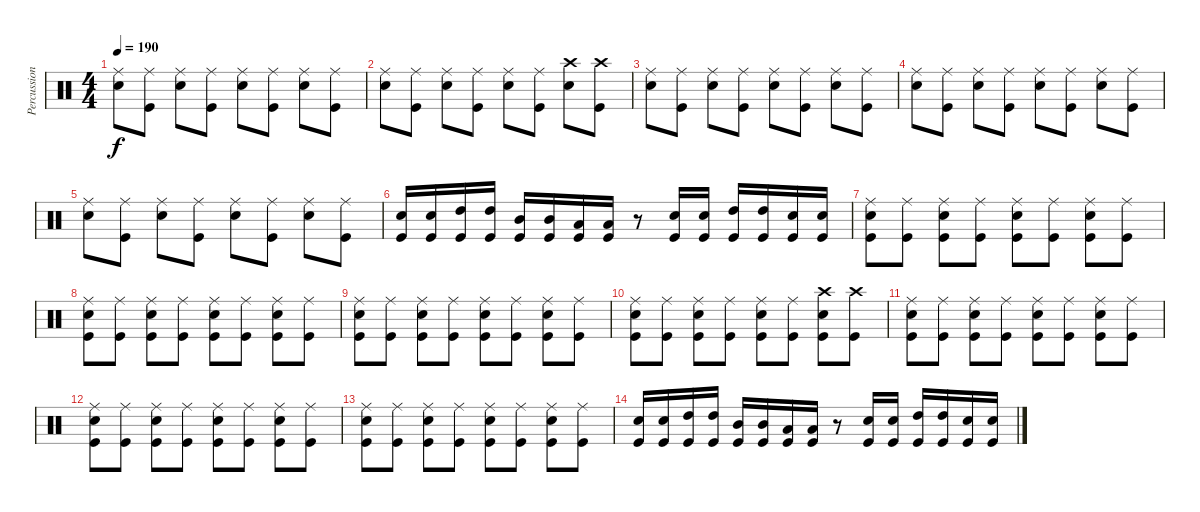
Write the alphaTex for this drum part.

\track ("Percussioni" "Percussion") {instrument percussion}
\staff {score}
\articulation defaults
\ts (4 4)
\tempo 190
\clef neutral
\ks c
("Ride (middle)" "Electric Snare (hit)").8{dy f} ("Ride (middle)" "Kick (hit)").8 ("Ride (middle)" "Electric Snare (hit)").8 ("Ride (middle)" "Kick (hit)").8 ("Ride (middle)" "Electric Snare (hit)").8 ("Ride (middle)" "Kick (hit)").8 ("Ride (middle)" "Electric Snare (hit)").8 ("Ride (middle)" "Kick (hit)").8 |
("Ride (middle)" "Electric Snare (hit)").8 ("Ride (middle)" "Kick (hit)").8 ("Ride (middle)" "Electric Snare (hit)").8 ("Ride (middle)" "Kick (hit)").8 ("Ride (middle)" "Electric Snare (hit)").8 ("Ride (middle)" "Kick (hit)").8 ("Crash high (hit)" "Electric Snare (hit)").8 ("Crash high (hit)" "Kick (hit)").8 |
("Ride (middle)" "Electric Snare (hit)").8 ("Ride (middle)" "Kick (hit)").8 ("Ride (middle)" "Electric Snare (hit)").8 ("Ride (middle)" "Kick (hit)").8 ("Ride (middle)" "Electric Snare (hit)").8 ("Ride (middle)" "Kick (hit)").8 ("Ride (middle)" "Electric Snare (hit)").8 ("Ride (middle)" "Kick (hit)").8 |
("Ride (middle)" "Electric Snare (hit)").8 ("Ride (middle)" "Kick (hit)").8 ("Ride (middle)" "Electric Snare (hit)").8 ("Ride (middle)" "Kick (hit)").8 ("Ride (middle)" "Electric Snare (hit)").8 ("Ride (middle)" "Kick (hit)").8 ("Ride (middle)" "Electric Snare (hit)").8 ("Ride (middle)" "Kick (hit)").8 |
("Ride (middle)" "Electric Snare (hit)").8 ("Ride (middle)" "Kick (hit)").8 ("Ride (middle)" "Electric Snare (hit)").8 ("Ride (middle)" "Kick (hit)").8 ("Ride (middle)" "Electric Snare (hit)").8 ("Ride (middle)" "Kick (hit)").8 ("Ride (middle)" "Electric Snare (hit)").8 ("Ride (middle)" "Kick (hit)").8 |
("Electric Snare (hit)" "Kick (hit)").16 ("Electric Snare (hit)" "Kick (hit)").16 ("High Tom (hit)" "Kick (hit)").16 ("High Tom (hit)" "Kick (hit)").16 ("Mid Tom (hit)" "Kick (hit)").16 ("Mid Tom (hit)" "Kick (hit)").16 ("Low Tom (hit)" "Kick (hit)").16 ("Low Tom (hit)" "Kick (hit)").16 r.8 ("Electric Snare (hit)" "Kick (hit)").16 ("Electric Snare (hit)" "Kick (hit)").16 ("High Tom (hit)" "Kick (hit)").16 ("High Tom (hit)" "Kick (hit)").16 ("Snare (hit) 2" "Kick (hit)").16 ("Snare (hit) 2" "Kick (hit)").16 |
("Ride (middle)" "Electric Snare (hit)" "Kick (hit)").8 ("Ride (middle)" "Kick (hit)").8 ("Ride (middle)" "Electric Snare (hit)" "Kick (hit)").8 ("Ride (middle)" "Kick (hit)").8 ("Ride (middle)" "Electric Snare (hit)" "Kick (hit)").8 ("Ride (middle)" "Kick (hit)").8 ("Ride (middle)" "Electric Snare (hit)" "Kick (hit)").8 ("Ride (middle)" "Kick (hit)").8 |
("Ride (middle)" "Electric Snare (hit)" "Kick (hit)").8 ("Ride (middle)" "Kick (hit)").8 ("Ride (middle)" "Electric Snare (hit)" "Kick (hit)").8 ("Ride (middle)" "Kick (hit)").8 ("Ride (middle)" "Electric Snare (hit)" "Kick (hit)").8 ("Ride (middle)" "Kick (hit)").8 ("Ride (middle)" "Electric Snare (hit)" "Kick (hit)").8 ("Ride (middle)" "Kick (hit)").8 |
("Ride (middle)" "Electric Snare (hit)" "Kick (hit)").8 ("Ride (middle)" "Kick (hit)").8 ("Ride (middle)" "Electric Snare (hit)" "Kick (hit)").8 ("Ride (middle)" "Kick (hit)").8 ("Ride (middle)" "Electric Snare (hit)" "Kick (hit)").8 ("Ride (middle)" "Kick (hit)").8 ("Ride (middle)" "Electric Snare (hit)" "Kick (hit)").8 ("Ride (middle)" "Kick (hit)").8 |
("Ride (middle)" "Electric Snare (hit)" "Kick (hit)").8 ("Ride (middle)" "Kick (hit)").8 ("Ride (middle)" "Electric Snare (hit)" "Kick (hit)").8 ("Ride (middle)" "Kick (hit)").8 ("Ride (middle)" "Electric Snare (hit)" "Kick (hit)").8 ("Ride (middle)" "Kick (hit)").8 ("Crash high (hit)" "Electric Snare (hit)" "Kick (hit)").8 ("Crash high (hit)" "Kick (hit)").8 |
("Ride (middle)" "Electric Snare (hit)" "Kick (hit)").8 ("Ride (middle)" "Kick (hit)").8 ("Ride (middle)" "Electric Snare (hit)" "Kick (hit)").8 ("Ride (middle)" "Kick (hit)").8 ("Ride (middle)" "Electric Snare (hit)" "Kick (hit)").8 ("Ride (middle)" "Kick (hit)").8 ("Ride (middle)" "Electric Snare (hit)" "Kick (hit)").8 ("Ride (middle)" "Kick (hit)").8 |
("Ride (middle)" "Electric Snare (hit)" "Kick (hit)").8 ("Ride (middle)" "Kick (hit)").8 ("Ride (middle)" "Electric Snare (hit)" "Kick (hit)").8 ("Ride (middle)" "Kick (hit)").8 ("Ride (middle)" "Electric Snare (hit)" "Kick (hit)").8 ("Ride (middle)" "Kick (hit)").8 ("Ride (middle)" "Electric Snare (hit)" "Kick (hit)").8 ("Ride (middle)" "Kick (hit)").8 |
("Ride (middle)" "Electric Snare (hit)" "Kick (hit)").8 ("Ride (middle)" "Kick (hit)").8 ("Ride (middle)" "Electric Snare (hit)" "Kick (hit)").8 ("Ride (middle)" "Kick (hit)").8 ("Ride (middle)" "Electric Snare (hit)" "Kick (hit)").8 ("Ride (middle)" "Kick (hit)").8 ("Ride (middle)" "Electric Snare (hit)" "Kick (hit)").8 ("Ride (middle)" "Kick (hit)").8 |
("Electric Snare (hit)" "Kick (hit)").16 ("Electric Snare (hit)" "Kick (hit)").16 ("High Tom (hit)" "Kick (hit)").16 ("High Tom (hit)" "Kick (hit)").16 ("Mid Tom (hit)" "Kick (hit)").16 ("Mid Tom (hit)" "Kick (hit)").16 ("Low Tom (hit)" "Kick (hit)").16 ("Low Tom (hit)" "Kick (hit)").16 r.8 ("Electric Snare (hit)" "Kick (hit)").16 ("Electric Snare (hit)" "Kick (hit)").16 ("High Tom (hit)" "Kick (hit)").16 ("High Tom (hit)" "Kick (hit)").16 ("Snare (hit) 2" "Kick (hit)").16 ("Snare (hit) 2" "Kick (hit)").16
